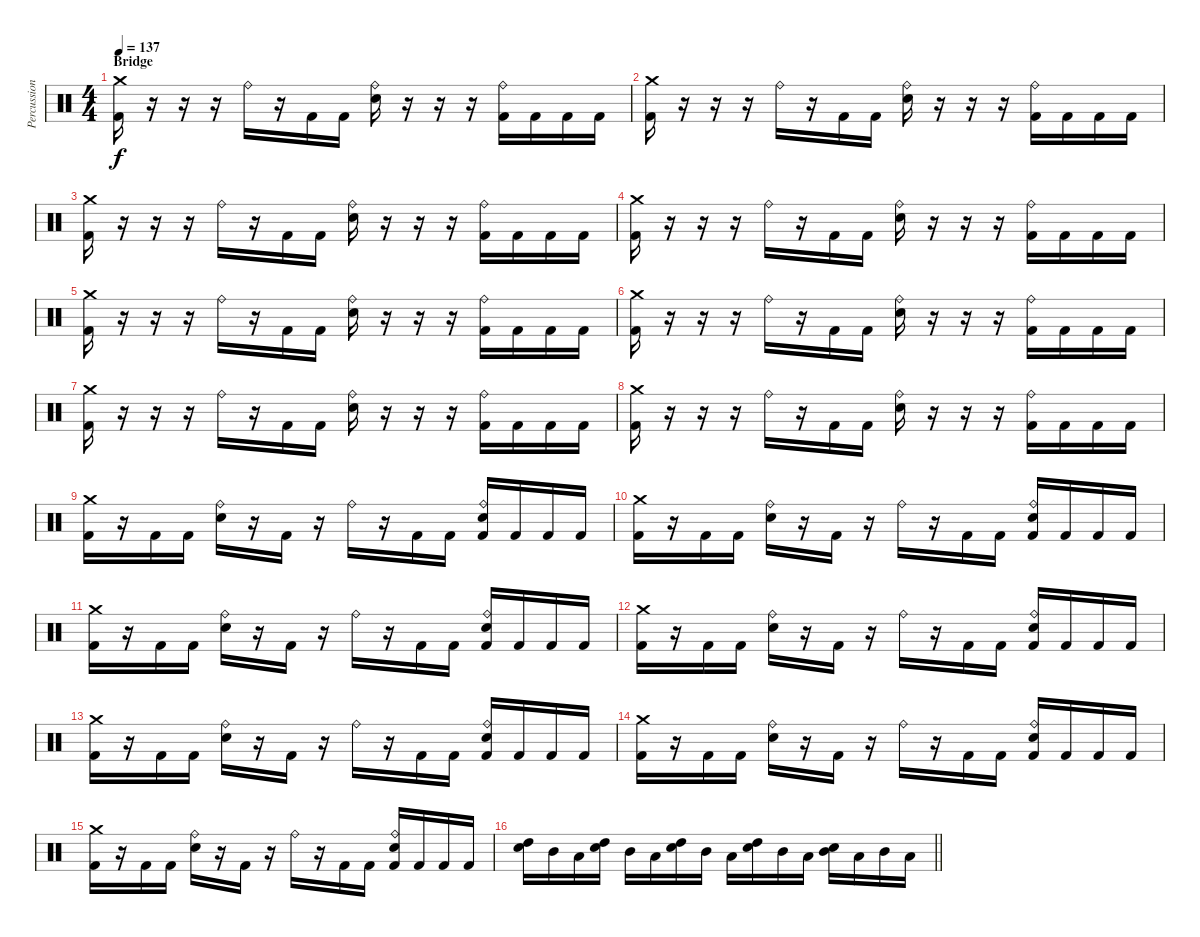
\track ("Percussion" "Percussion") {instrument percussion}
\staff {score}
\articulation defaults
\ts (4 4)
\section ("" "Bridge")
\tempo 137
\clef neutral
\ks c
("Crash medium (hit)" "Kick (hit) 2").16{dy f} r.16 r.16 r.16 "Ride (bell)".16 r.16 "Kick (hit) 2".16 "Kick (hit) 2".16 ("Ride (bell)" "Snare (hit) 2").16 r.16 r.16 r.16 ("Ride (bell)" "Kick (hit) 2").16 "Kick (hit) 2".16 "Kick (hit) 2".16 "Kick (hit) 2".16 |
("Crash medium (hit)" "Kick (hit) 2").16 r.16 r.16 r.16 "Ride (bell)".16 r.16 "Kick (hit) 2".16 "Kick (hit) 2".16 ("Ride (bell)" "Snare (hit) 2").16 r.16 r.16 r.16 ("Ride (bell)" "Kick (hit) 2").16 "Kick (hit) 2".16 "Kick (hit) 2".16 "Kick (hit) 2".16 |
("Crash medium (hit)" "Kick (hit) 2").16 r.16 r.16 r.16 "Ride (bell)".16 r.16 "Kick (hit) 2".16 "Kick (hit) 2".16 ("Ride (bell)" "Snare (hit) 2").16 r.16 r.16 r.16 ("Ride (bell)" "Kick (hit) 2").16 "Kick (hit) 2".16 "Kick (hit) 2".16 "Kick (hit) 2".16 |
("Crash medium (hit)" "Kick (hit) 2").16 r.16 r.16 r.16 "Ride (bell)".16 r.16 "Kick (hit) 2".16 "Kick (hit) 2".16 ("Ride (bell)" "Snare (hit) 2").16 r.16 r.16 r.16 ("Ride (bell)" "Kick (hit) 2").16 "Kick (hit) 2".16 "Kick (hit) 2".16 "Kick (hit) 2".16 |
("Crash medium (hit)" "Kick (hit) 2").16 r.16 r.16 r.16 "Ride (bell)".16 r.16 "Kick (hit) 2".16 "Kick (hit) 2".16 ("Ride (bell)" "Snare (hit) 2").16 r.16 r.16 r.16 ("Ride (bell)" "Kick (hit) 2").16 "Kick (hit) 2".16 "Kick (hit) 2".16 "Kick (hit) 2".16 |
("Crash medium (hit)" "Kick (hit) 2").16 r.16 r.16 r.16 "Ride (bell)".16 r.16 "Kick (hit) 2".16 "Kick (hit) 2".16 ("Ride (bell)" "Snare (hit) 2").16 r.16 r.16 r.16 ("Ride (bell)" "Kick (hit) 2").16 "Kick (hit) 2".16 "Kick (hit) 2".16 "Kick (hit) 2".16 |
("Crash medium (hit)" "Kick (hit) 2").16 r.16 r.16 r.16 "Ride (bell)".16 r.16 "Kick (hit) 2".16 "Kick (hit) 2".16 ("Ride (bell)" "Snare (hit) 2").16 r.16 r.16 r.16 ("Ride (bell)" "Kick (hit) 2").16 "Kick (hit) 2".16 "Kick (hit) 2".16 "Kick (hit) 2".16 |
("Crash medium (hit)" "Kick (hit) 2").16 r.16 r.16 r.16 "Ride (bell)".16 r.16 "Kick (hit) 2".16 "Kick (hit) 2".16 ("Ride (bell)" "Snare (hit) 2").16 r.16 r.16 r.16 ("Ride (bell)" "Kick (hit) 2").16 "Kick (hit) 2".16 "Kick (hit) 2".16 "Kick (hit) 2".16 |
("Crash medium (hit)" "Kick (hit) 2").16 r.16 "Kick (hit) 2".16 "Kick (hit) 2".16 ("Ride (bell)" "Snare (hit) 2").16 r.16 "Kick (hit) 2".16 r.16 "Ride (bell)".16 r.16 "Kick (hit) 2".16 "Kick (hit) 2".16 ("Ride (bell)" "Snare (hit) 2" "Kick (hit) 2").16 "Kick (hit) 2".16 "Kick (hit) 2".16 "Kick (hit) 2".16 |
("Crash medium (hit)" "Kick (hit) 2").16 r.16 "Kick (hit) 2".16 "Kick (hit) 2".16 ("Ride (bell)" "Snare (hit) 2").16 r.16 "Kick (hit) 2".16 r.16 "Ride (bell)".16 r.16 "Kick (hit) 2".16 "Kick (hit) 2".16 ("Ride (bell)" "Snare (hit) 2" "Kick (hit) 2").16 "Kick (hit) 2".16 "Kick (hit) 2".16 "Kick (hit) 2".16 |
("Crash medium (hit)" "Kick (hit) 2").16 r.16 "Kick (hit) 2".16 "Kick (hit) 2".16 ("Ride (bell)" "Snare (hit) 2").16 r.16 "Kick (hit) 2".16 r.16 "Ride (bell)".16 r.16 "Kick (hit) 2".16 "Kick (hit) 2".16 ("Ride (bell)" "Snare (hit) 2" "Kick (hit) 2").16 "Kick (hit) 2".16 "Kick (hit) 2".16 "Kick (hit) 2".16 |
("Crash medium (hit)" "Kick (hit) 2").16 r.16 "Kick (hit) 2".16 "Kick (hit) 2".16 ("Ride (bell)" "Snare (hit) 2").16 r.16 "Kick (hit) 2".16 r.16 "Ride (bell)".16 r.16 "Kick (hit) 2".16 "Kick (hit) 2".16 ("Ride (bell)" "Snare (hit) 2" "Kick (hit) 2").16 "Kick (hit) 2".16 "Kick (hit) 2".16 "Kick (hit) 2".16 |
("Crash medium (hit)" "Kick (hit) 2").16 r.16 "Kick (hit) 2".16 "Kick (hit) 2".16 ("Ride (bell)" "Snare (hit) 2").16 r.16 "Kick (hit) 2".16 r.16 "Ride (bell)".16 r.16 "Kick (hit) 2".16 "Kick (hit) 2".16 ("Ride (bell)" "Snare (hit) 2" "Kick (hit) 2").16 "Kick (hit) 2".16 "Kick (hit) 2".16 "Kick (hit) 2".16 |
("Crash medium (hit)" "Kick (hit) 2").16 r.16 "Kick (hit) 2".16 "Kick (hit) 2".16 ("Ride (bell)" "Snare (hit) 2").16 r.16 "Kick (hit) 2".16 r.16 "Ride (bell)".16 r.16 "Kick (hit) 2".16 "Kick (hit) 2".16 ("Ride (bell)" "Snare (hit) 2" "Kick (hit) 2").16 "Kick (hit) 2".16 "Kick (hit) 2".16 "Kick (hit) 2".16 |
("Crash medium (hit)" "Kick (hit) 2").16 r.16 "Kick (hit) 2".16 "Kick (hit) 2".16 ("Ride (bell)" "Snare (hit) 2").16 r.16 "Kick (hit) 2".16 r.16 "Ride (bell)".16 r.16 "Kick (hit) 2".16 "Kick (hit) 2".16 ("Ride (bell)" "Snare (hit) 2" "Kick (hit) 2").16 "Kick (hit) 2".16 "Kick (hit) 2".16 "Kick (hit) 2".16 |
\barLineRight lightlight
("Snare (hit) 2" "High Tom (hit)").16 "Mid Tom (hit)".16 "Low Tom (hit)".16 ("Snare (hit) 2" "High Tom (hit)").16 "Mid Tom (hit)".16 "Low Tom (hit)".16 ("Snare (hit) 2" "High Tom (hit)").16 "Mid Tom (hit)".16 "Low Tom (hit)".16 ("Snare (hit) 2" "High Tom (hit)").16 "Mid Tom (hit)".16 "Low Tom (hit)".16 ("Snare (hit) 2" "Mid Tom (hit)").16 "Low Tom (hit)".16 "Mid Tom (hit)".16 "Low Tom (hit)".16
